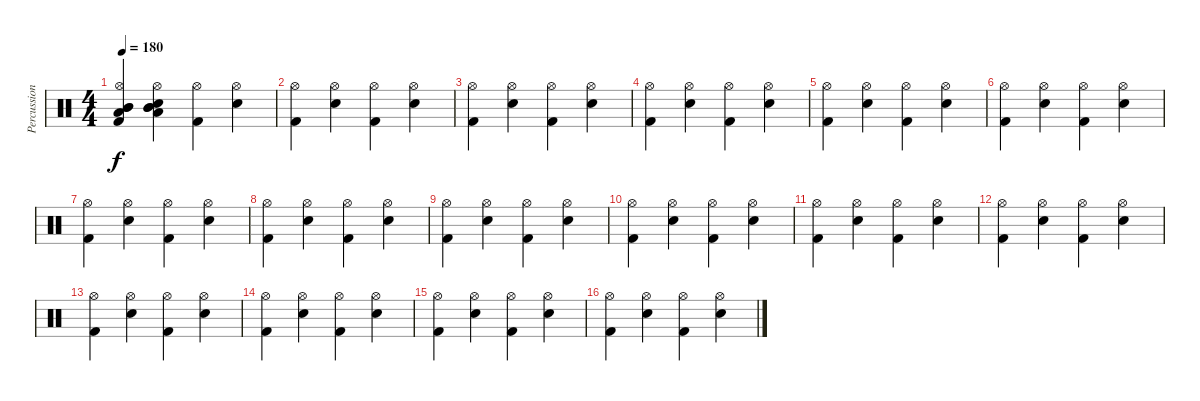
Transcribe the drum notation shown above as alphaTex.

\track ("Percussion" "Percussion") {instrument percussion}
\staff {score}
\articulation defaults
\ts (4 4)
\tempo 180
\clef neutral
\ks c
("Low Tom (hit)" "Mid Tom (hit)" "Mid Tom (hit)" "Hi-Hat (open)" "Kick (hit) 2").4{dy f} ("Low Tom (hit)" "Mid Tom (hit)" "Mid Tom (hit)" "Hi-Hat (open)" "Electric Snare (hit)").4 ("Hi-Hat (open)" "Kick (hit) 2").4 ("Hi-Hat (open)" "Electric Snare (hit)").4 |
("Hi-Hat (open)" "Kick (hit) 2").4 ("Hi-Hat (open)" "Electric Snare (hit)").4 ("Hi-Hat (open)" "Kick (hit) 2").4 ("Hi-Hat (open)" "Electric Snare (hit)").4 |
("Hi-Hat (open)" "Kick (hit) 2").4 ("Hi-Hat (open)" "Electric Snare (hit)").4 ("Hi-Hat (open)" "Kick (hit) 2").4 ("Hi-Hat (open)" "Electric Snare (hit)").4 |
("Hi-Hat (open)" "Kick (hit) 2").4 ("Hi-Hat (open)" "Electric Snare (hit)").4 ("Hi-Hat (open)" "Kick (hit) 2").4 ("Hi-Hat (open)" "Electric Snare (hit)").4 |
("Hi-Hat (open)" "Kick (hit) 2").4 ("Hi-Hat (open)" "Electric Snare (hit)").4 ("Hi-Hat (open)" "Kick (hit) 2").4 ("Hi-Hat (open)" "Electric Snare (hit)").4 |
("Hi-Hat (open)" "Kick (hit) 2").4 ("Hi-Hat (open)" "Electric Snare (hit)").4 ("Hi-Hat (open)" "Kick (hit) 2").4 ("Hi-Hat (open)" "Electric Snare (hit)").4 |
("Hi-Hat (open)" "Kick (hit) 2").4 ("Hi-Hat (open)" "Electric Snare (hit)").4 ("Hi-Hat (open)" "Kick (hit) 2").4 ("Hi-Hat (open)" "Electric Snare (hit)").4 |
("Hi-Hat (open)" "Kick (hit) 2").4 ("Hi-Hat (open)" "Electric Snare (hit)").4 ("Hi-Hat (open)" "Kick (hit) 2").4 ("Hi-Hat (open)" "Electric Snare (hit)").4 |
("Hi-Hat (open)" "Kick (hit) 2").4 ("Hi-Hat (open)" "Electric Snare (hit)").4 ("Hi-Hat (open)" "Kick (hit) 2").4 ("Hi-Hat (open)" "Electric Snare (hit)").4 |
("Hi-Hat (open)" "Kick (hit) 2").4 ("Hi-Hat (open)" "Electric Snare (hit)").4 ("Hi-Hat (open)" "Kick (hit) 2").4 ("Hi-Hat (open)" "Electric Snare (hit)").4 |
("Hi-Hat (open)" "Kick (hit) 2").4 ("Hi-Hat (open)" "Electric Snare (hit)").4 ("Hi-Hat (open)" "Kick (hit) 2").4 ("Hi-Hat (open)" "Electric Snare (hit)").4 |
("Hi-Hat (open)" "Kick (hit) 2").4 ("Hi-Hat (open)" "Electric Snare (hit)").4 ("Hi-Hat (open)" "Kick (hit) 2").4 ("Hi-Hat (open)" "Electric Snare (hit)").4 |
("Hi-Hat (open)" "Kick (hit) 2").4 ("Hi-Hat (open)" "Electric Snare (hit)").4 ("Hi-Hat (open)" "Kick (hit) 2").4 ("Hi-Hat (open)" "Electric Snare (hit)").4 |
("Hi-Hat (open)" "Kick (hit) 2").4 ("Hi-Hat (open)" "Electric Snare (hit)").4 ("Hi-Hat (open)" "Kick (hit) 2").4 ("Hi-Hat (open)" "Electric Snare (hit)").4 |
("Hi-Hat (open)" "Kick (hit) 2").4 ("Hi-Hat (open)" "Electric Snare (hit)").4 ("Hi-Hat (open)" "Kick (hit) 2").4 ("Hi-Hat (open)" "Electric Snare (hit)").4 |
("Hi-Hat (open)" "Kick (hit) 2").4 ("Hi-Hat (open)" "Electric Snare (hit)").4 ("Hi-Hat (open)" "Kick (hit) 2").4 ("Hi-Hat (open)" "Electric Snare (hit)").4
